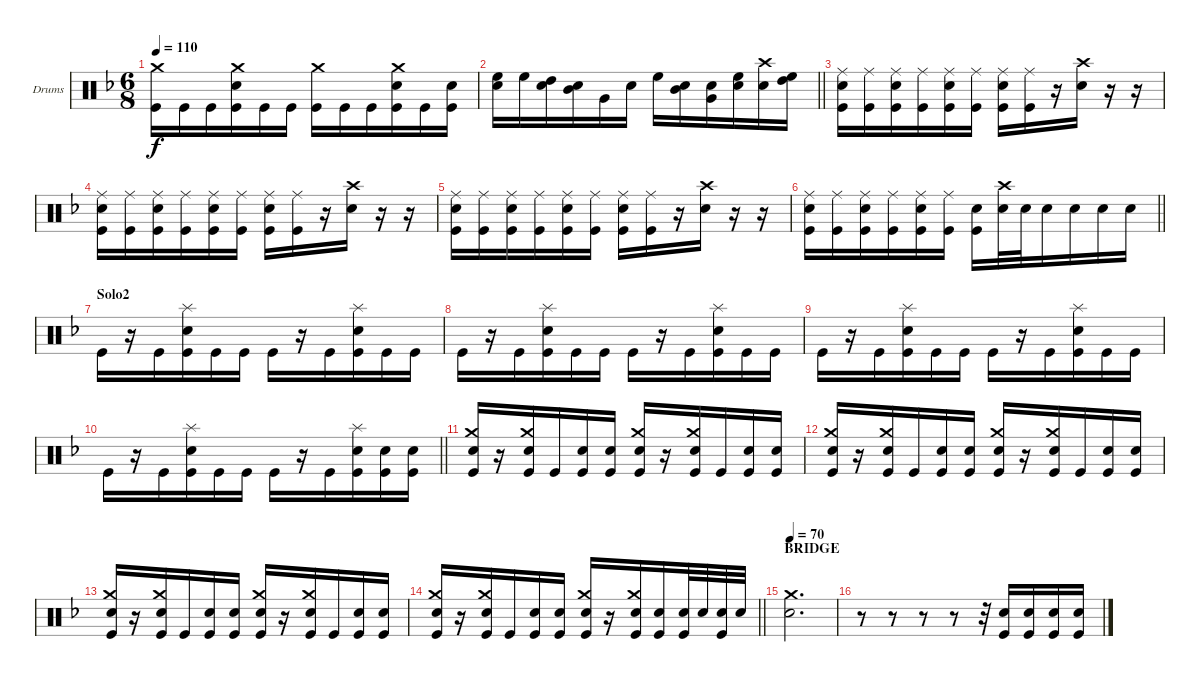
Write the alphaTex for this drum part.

\bracketExtendMode groupsimilarinstruments
\firstSystemTrackNameOrientation horizontal
\otherSystemsTrackNameOrientation horizontal
\track ("Drumkit" "Drums") {instrument percussion}
\staff {score}
\articulation defaults
\ts (6 8)
\tempo 110
\clef neutral
\ks f
("Kick (hit)" "Crash medium (hit)").16{dy f} "Kick (hit)".16 "Kick (hit)".16 ("Kick (hit)" "Snare (hit) 2" "Crash medium (hit)").16 "Kick (hit)".16 "Kick (hit)".16 ("Kick (hit)" "Crash medium (hit)").16 "Kick (hit)".16 "Kick (hit)".16 ("Kick (hit)" "Snare (hit) 2" "Crash medium (hit)").16 "Kick (hit)".16 ("Kick (hit)" "Snare (hit) 2").16 |
\barLineRight lightlight
("High Floor Tom (hit)" "Snare (hit) 2").16 "High Floor Tom (hit)".16 ("High Tom (hit)" "Snare (hit) 2").16 ("Mid Tom (hit)" "Snare (hit) 2").16 "Very Low Tom (hit)".16 "Snare (hit) 2".16 "High Floor Tom (hit)".16 ("Mid Tom (hit)" "Snare (hit) 2").16 ("Very Low Tom (hit)" "Snare (hit) 2").16 ("Snare (hit) 2" "High Floor Tom (hit)").16 ("Snare (hit) 2" "Crash high (hit)").16 ("High Floor Tom (hit)" "High Tom (hit)").16 |
("Snare (hit) 2" "Ride (middle)" "Kick (hit)").16 ("Ride (middle)" "Kick (hit)").16 ("Snare (hit) 2" "Ride (middle)" "Kick (hit)").16 ("Ride (middle)" "Kick (hit)").16 ("Snare (hit) 2" "Ride (middle)" "Kick (hit)").16 ("Ride (middle)" "Kick (hit)").16 ("Snare (hit) 2" "Ride (middle)" "Kick (hit)").16 ("Ride (middle)" "Kick (hit)").16 r.16 ("Snare (hit) 2" "Crash high (hit)").16 r.16 r.16 |
("Snare (hit) 2" "Ride (middle)" "Kick (hit)").16 ("Ride (middle)" "Kick (hit)").16 ("Snare (hit) 2" "Ride (middle)" "Kick (hit)").16 ("Ride (middle)" "Kick (hit)").16 ("Snare (hit) 2" "Ride (middle)" "Kick (hit)").16 ("Ride (middle)" "Kick (hit)").16 ("Snare (hit) 2" "Ride (middle)" "Kick (hit)").16 ("Ride (middle)" "Kick (hit)").16 r.16 ("Snare (hit) 2" "Crash high (hit)").16 r.16 r.16 |
("Snare (hit) 2" "Ride (middle)" "Kick (hit)").16 ("Ride (middle)" "Kick (hit)").16 ("Snare (hit) 2" "Ride (middle)" "Kick (hit)").16 ("Ride (middle)" "Kick (hit)").16 ("Snare (hit) 2" "Ride (middle)" "Kick (hit)").16 ("Ride (middle)" "Kick (hit)").16 ("Snare (hit) 2" "Ride (middle)" "Kick (hit)").16 ("Ride (middle)" "Kick (hit)").16 r.16 ("Snare (hit) 2" "Crash high (hit)").16 r.16 r.16 |
\barLineRight lightlight
("Snare (hit) 2" "Ride (middle)" "Kick (hit)").16 ("Ride (middle)" "Kick (hit)").16 ("Snare (hit) 2" "Ride (middle)" "Kick (hit)").16 ("Ride (middle)" "Kick (hit)").16 ("Snare (hit) 2" "Ride (middle)" "Kick (hit)").16 ("Ride (middle)" "Kick (hit)").16 ("Snare (hit) 2" "Kick (hit)").16 ("Snare (hit) 2" "Crash high (hit)").32 "Snare (hit) 2".32 "Snare (hit) 2".16 "Snare (hit) 2".16 "Snare (hit) 2".16 "Snare (hit) 2".16 |
\section ("" "Solo2")
\ks dminor "Kick (hit)".16
r.16 "Kick (hit)".16 ("Kick (hit)" "Snare (hit) 2" "Splash (hit)").16 "Kick (hit)".16 "Kick (hit)".16 "Kick (hit)".16 r.16 "Kick (hit)".16 ("Kick (hit)" "Snare (hit) 2" "Splash (hit)").16 "Kick (hit)".16 "Kick (hit)".16 |
"Kick (hit)".16 r.16 "Kick (hit)".16 ("Kick (hit)" "Snare (hit) 2" "Splash (hit)").16 "Kick (hit)".16 "Kick (hit)".16 "Kick (hit)".16 r.16 "Kick (hit)".16 ("Kick (hit)" "Snare (hit) 2" "Splash (hit)").16 "Kick (hit)".16 "Kick (hit)".16 |
"Kick (hit)".16 r.16 "Kick (hit)".16 ("Kick (hit)" "Snare (hit) 2" "Splash (hit)").16 "Kick (hit)".16 "Kick (hit)".16 "Kick (hit)".16 r.16 "Kick (hit)".16 ("Kick (hit)" "Snare (hit) 2" "Splash (hit)").16 "Kick (hit)".16 "Kick (hit)".16 |
\barLineRight lightlight "Kick (hit)".16
r.16 "Kick (hit)".16 ("Kick (hit)" "Snare (hit) 2" "Splash (hit)").16 "Kick (hit)".16 "Kick (hit)".16 "Kick (hit)".16 r.16 "Kick (hit)".16 ("Kick (hit)" "Snare (hit) 2" "Splash (hit)").16 ("Kick (hit)" "Snare (hit) 2").16 ("Kick (hit)" "Snare (hit) 2").16 |
\ks f
("Kick (hit)" "Snare (hit) 2" "Crash medium (hit)").16 r.16 ("Kick (hit)" "Snare (hit) 2" "Crash medium (hit)").16 "Kick (hit)".16 ("Kick (hit)" "Snare (hit) 2").16 ("Kick (hit)" "Snare (hit) 2").16 ("Kick (hit)" "Snare (hit) 2" "Crash medium (hit)").16 r.16 ("Kick (hit)" "Snare (hit) 2" "Crash medium (hit)").16 "Kick (hit)".16 ("Kick (hit)" "Snare (hit) 2").16 ("Kick (hit)" "Snare (hit) 2").16 |
("Kick (hit)" "Snare (hit) 2" "Crash medium (hit)").16 r.16 ("Kick (hit)" "Snare (hit) 2" "Crash medium (hit)").16 "Kick (hit)".16 ("Kick (hit)" "Snare (hit) 2").16 ("Kick (hit)" "Snare (hit) 2").16 ("Kick (hit)" "Snare (hit) 2" "Crash medium (hit)").16 r.16 ("Kick (hit)" "Snare (hit) 2" "Crash medium (hit)").16 "Kick (hit)".16 ("Kick (hit)" "Snare (hit) 2").16 ("Kick (hit)" "Snare (hit) 2").16 |
("Kick (hit)" "Snare (hit) 2" "Crash medium (hit)").16 r.16 ("Kick (hit)" "Snare (hit) 2" "Crash medium (hit)").16 "Kick (hit)".16 ("Kick (hit)" "Snare (hit) 2").16 ("Kick (hit)" "Snare (hit) 2").16 ("Kick (hit)" "Snare (hit) 2" "Crash medium (hit)").16 r.16 ("Kick (hit)" "Snare (hit) 2" "Crash medium (hit)").16 "Kick (hit)".16 ("Kick (hit)" "Snare (hit) 2").16 ("Kick (hit)" "Snare (hit) 2").16 |
\barLineRight lightlight
("Kick (hit)" "Snare (hit) 2" "Crash medium (hit)").16 r.16 ("Kick (hit)" "Snare (hit) 2" "Crash medium (hit)").16 "Kick (hit)".16 ("Kick (hit)" "Snare (hit) 2").16 ("Kick (hit)" "Snare (hit) 2").16 ("Kick (hit)" "Snare (hit) 2" "Crash medium (hit)").16 r.16 ("Kick (hit)" "Snare (hit) 2" "Crash medium (hit)").16 ("Kick (hit)" "Snare (hit) 2").16 ("Kick (hit)" "Snare (hit) 2").32 "Snare (hit) 2".32 ("Kick (hit)" "Snare (hit) 2").32 "Snare (hit) 2".32 |
\section ("" "BRIDGE")
\tempo 70
("Crash medium (hit)" "Snare (hit) 2").2{d} |
r.8 r.8 r.8 r.8 r.32 ("Snare (hit) 2" "Kick (hit)").16 ("Snare (hit) 2" "Kick (hit)").16 ("Snare (hit) 2" "Kick (hit)").16 ("Snare (hit) 2" "Kick (hit)").16
